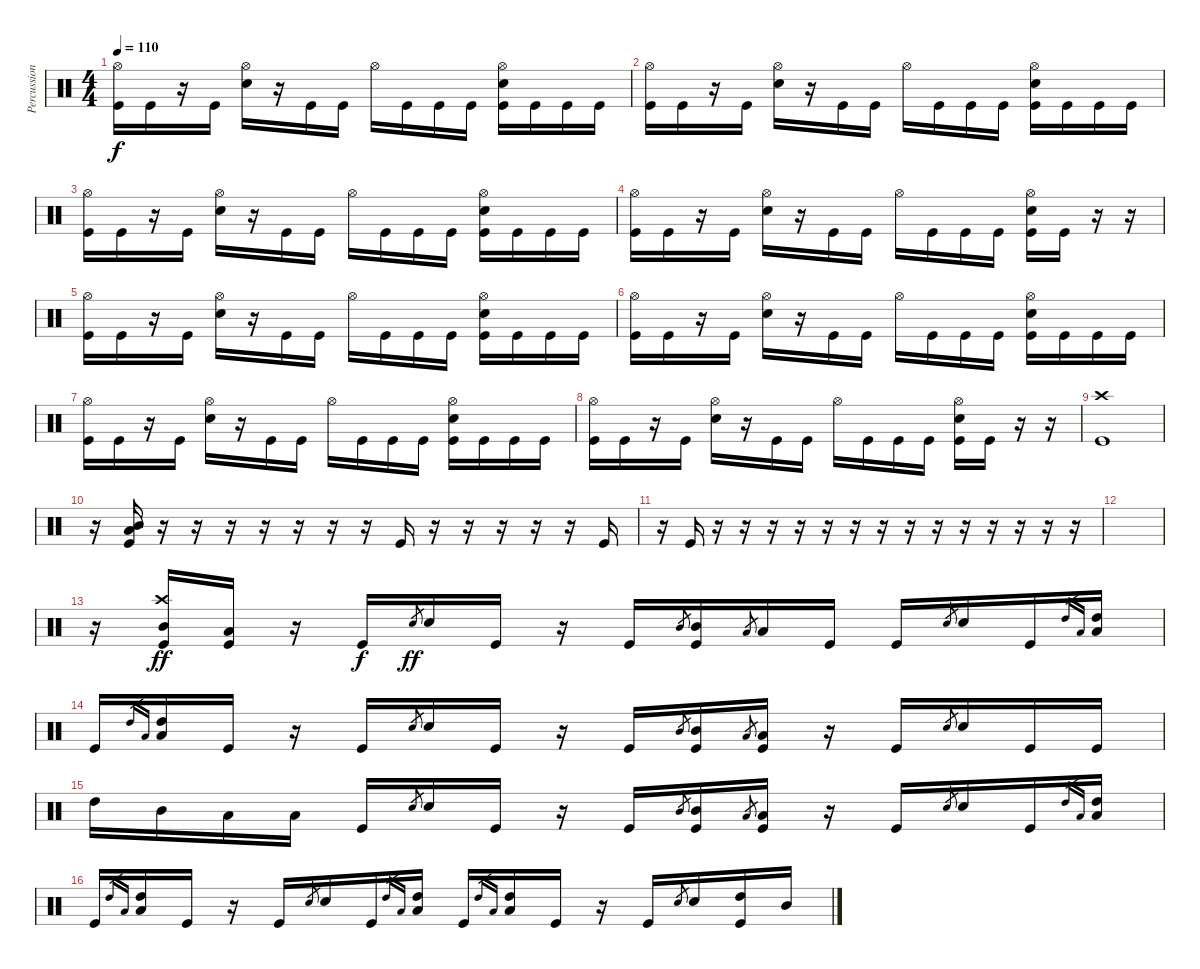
\track ("Percussion" "Percussion") {instrument percussion}
\staff {score}
\articulation defaults
\ts (4 4)
\tempo 110
\clef neutral
\ks c
("Hi-Hat (open)" "Kick (hit)").16{dy f} "Kick (hit)".16 r.16 "Kick (hit)".16 ("Hi-Hat (open)" "Electric Snare (hit)").16 r.16 "Kick (hit)".16 "Kick (hit)".16 "Hi-Hat (open)".16 "Kick (hit)".16 "Kick (hit)".16 "Kick (hit)".16 ("Hi-Hat (open)" "Electric Snare (hit)" "Kick (hit)").16 "Kick (hit)".16 "Kick (hit)".16 "Kick (hit)".16 |
("Hi-Hat (open)" "Kick (hit)").16 "Kick (hit)".16 r.16 "Kick (hit)".16 ("Hi-Hat (open)" "Electric Snare (hit)").16 r.16 "Kick (hit)".16 "Kick (hit)".16 "Hi-Hat (open)".16 "Kick (hit)".16 "Kick (hit)".16 "Kick (hit)".16 ("Hi-Hat (open)" "Electric Snare (hit)" "Kick (hit)").16 "Kick (hit)".16 "Kick (hit)".16 "Kick (hit)".16 |
("Hi-Hat (open)" "Kick (hit)").16 "Kick (hit)".16 r.16 "Kick (hit)".16 ("Hi-Hat (open)" "Electric Snare (hit)").16 r.16 "Kick (hit)".16 "Kick (hit)".16 "Hi-Hat (open)".16 "Kick (hit)".16 "Kick (hit)".16 "Kick (hit)".16 ("Hi-Hat (open)" "Electric Snare (hit)" "Kick (hit)").16 "Kick (hit)".16 "Kick (hit)".16 "Kick (hit)".16 |
("Hi-Hat (open)" "Kick (hit)").16 "Kick (hit)".16 r.16 "Kick (hit)".16 ("Hi-Hat (open)" "Electric Snare (hit)").16 r.16 "Kick (hit)".16 "Kick (hit)".16 "Hi-Hat (open)".16 "Kick (hit)".16 "Kick (hit)".16 "Kick (hit)".16 ("Hi-Hat (open)" "Electric Snare (hit)" "Kick (hit)").16 "Kick (hit)".16 r.16 r.16 |
("Hi-Hat (open)" "Kick (hit)").16 "Kick (hit)".16 r.16 "Kick (hit)".16 ("Hi-Hat (open)" "Electric Snare (hit)").16 r.16 "Kick (hit)".16 "Kick (hit)".16 "Hi-Hat (open)".16 "Kick (hit)".16 "Kick (hit)".16 "Kick (hit)".16 ("Hi-Hat (open)" "Electric Snare (hit)" "Kick (hit)").16 "Kick (hit)".16 "Kick (hit)".16 "Kick (hit)".16 |
("Hi-Hat (open)" "Kick (hit)").16 "Kick (hit)".16 r.16 "Kick (hit)".16 ("Hi-Hat (open)" "Electric Snare (hit)").16 r.16 "Kick (hit)".16 "Kick (hit)".16 "Hi-Hat (open)".16 "Kick (hit)".16 "Kick (hit)".16 "Kick (hit)".16 ("Hi-Hat (open)" "Electric Snare (hit)" "Kick (hit)").16 "Kick (hit)".16 "Kick (hit)".16 "Kick (hit)".16 |
("Hi-Hat (open)" "Kick (hit)").16 "Kick (hit)".16 r.16 "Kick (hit)".16 ("Hi-Hat (open)" "Electric Snare (hit)").16 r.16 "Kick (hit)".16 "Kick (hit)".16 "Hi-Hat (open)".16 "Kick (hit)".16 "Kick (hit)".16 "Kick (hit)".16 ("Hi-Hat (open)" "Electric Snare (hit)" "Kick (hit)").16 "Kick (hit)".16 "Kick (hit)".16 "Kick (hit)".16 |
("Hi-Hat (open)" "Kick (hit)").16 "Kick (hit)".16 r.16 "Kick (hit)".16 ("Hi-Hat (open)" "Electric Snare (hit)").16 r.16 "Kick (hit)".16 "Kick (hit)".16 "Hi-Hat (open)".16 "Kick (hit)".16 "Kick (hit)".16 "Kick (hit)".16 ("Hi-Hat (open)" "Electric Snare (hit)" "Kick (hit)").16 "Kick (hit)".16 r.16 r.16 |
("Crash high (hit)" "Kick (hit)").1 |
r.16 ("Kick (hit)" "Low Tom (hit)" "Mid Tom (hit)").16 r.16 r.16 r.16 r.16 r.16 r.16 r.16 "Kick (hit)".16 r.16 r.16 r.16 r.16 r.16 "Kick (hit)".16 |
r.16 "Kick (hit)".16 r.16 r.16 r.16 r.16 r.16 r.16 r.16 r.16 r.16 r.16 r.16 r.16 r.16 r.16 |
|
r.16 ("Crash high (hit)" "Mid Tom (hit)" "Kick (hit)").16{dy ff} ("Low Floor Tom (hit)" "Kick (hit)").16 r.16 "Kick (hit)".16{dy f} "Electric Snare (hit)".8{gr dy ff} "Electric Snare (hit)".16 "Kick (hit)".16 r.16 "Kick (hit)".16 "Mid Tom (hit)".8{gr} ("Mid Tom (hit)" "Kick (hit)").16 "Low Floor Tom (hit)".8{gr} "Low Floor Tom (hit)".16 "Kick (hit)".16 "Kick (hit)".16 "Electric Snare (hit)".8{gr} "Electric Snare (hit)".16 "Kick (hit)".16 "High Tom (hit)".16{gr} "Low Floor Tom (hit)".16{gr} ("High Tom (hit)" "Low Floor Tom (hit)").16 |
"Kick (hit)".16 "High Tom (hit)".16{gr} "Low Floor Tom (hit)".16{gr} ("High Tom (hit)" "Low Floor Tom (hit)").16 "Kick (hit)".16 r.16 "Kick (hit)".16 "Electric Snare (hit)".8{gr} "Electric Snare (hit)".16 "Kick (hit)".16 r.16 "Kick (hit)".16 "Mid Tom (hit)".8{gr} ("Mid Tom (hit)" "Kick (hit)").16 "Low Floor Tom (hit)".8{gr} ("Low Floor Tom (hit)" "Kick (hit)").16 r.16 "Kick (hit)".16 "Electric Snare (hit)".8{gr} "Electric Snare (hit)".16 "Kick (hit)".16 "Kick (hit)".16 |
"High Tom (hit)".16 "Mid Tom (hit)".16 "Low Tom (hit)".16 "Low Floor Tom (hit)".16 "Kick (hit)".16 "Electric Snare (hit)".8{gr} "Electric Snare (hit)".16 "Kick (hit)".16 r.16 "Kick (hit)".16 "Mid Tom (hit)".8{gr} ("Mid Tom (hit)" "Kick (hit)").16 "Low Floor Tom (hit)".8{gr} ("Low Floor Tom (hit)" "Kick (hit)").16 r.16 "Kick (hit)".16 "Electric Snare (hit)".8{gr} "Electric Snare (hit)".16 "Kick (hit)".16 "High Tom (hit)".16{gr} "Low Floor Tom (hit)".16{gr} ("High Tom (hit)" "Low Floor Tom (hit)").16 |
"Kick (hit)".16 "High Tom (hit)".16{gr} "Low Floor Tom (hit)".16{gr} ("High Tom (hit)" "Low Floor Tom (hit)").16 "Kick (hit)".16 r.16 "Kick (hit)".16 "Electric Snare (hit)".8{gr} "Electric Snare (hit)".16 "Kick (hit)".16 "High Tom (hit)".16{gr} "Low Floor Tom (hit)".16{gr} ("High Tom (hit)" "Low Floor Tom (hit)").16 "Kick (hit)".16 "High Tom (hit)".16{gr} "Low Floor Tom (hit)".16{gr} ("High Tom (hit)" "Low Floor Tom (hit)").16 "Kick (hit)".16 r.16 "Kick (hit)".16 "Electric Snare (hit)".8{gr} "Electric Snare (hit)".16 ("High Tom (hit)" "Kick (hit)").16 "Mid Tom (hit)".16
